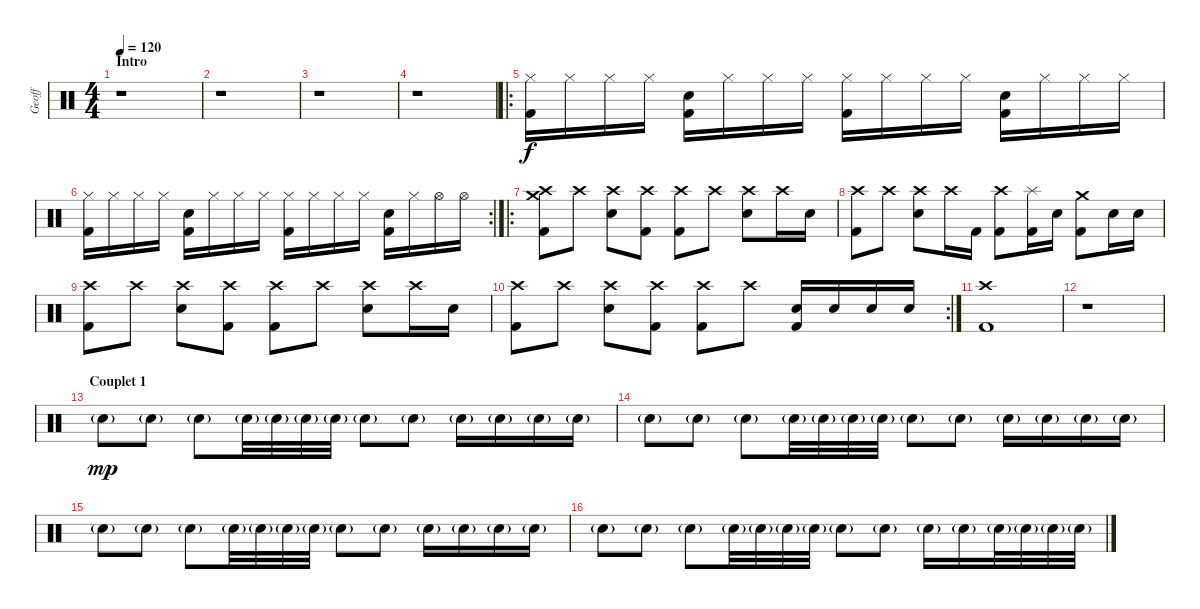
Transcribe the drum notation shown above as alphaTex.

\track ("Geoff" "Geoff") {instrument percussion}
\staff {score}
\articulation defaults
\ts (4 4)
\section ("" "Intro")
\tempo 120
\clef neutral
\ks c
r.1{dy f} |
r.1 |
r.1 |
r.1 |
\ro
("Hi-Hat (closed)" "Kick (hit) 2").16 "Hi-Hat (closed)".16 "Hi-Hat (closed)".16 "Hi-Hat (closed)".16 ("Electric Snare (hit)" "Kick (hit) 2").16 "Hi-Hat (closed)".16 "Hi-Hat (closed)".16 "Hi-Hat (closed)".16 ("Hi-Hat (closed)" "Kick (hit) 2").16 "Hi-Hat (closed)".16 "Hi-Hat (closed)".16 "Hi-Hat (closed)".16 ("Electric Snare (hit)" "Kick (hit) 2").16 "Hi-Hat (closed)".16 "Hi-Hat (closed)".16 "Hi-Hat (closed)".16 |
\rc 2
("Hi-Hat (closed)" "Kick (hit) 2").16 "Hi-Hat (closed)".16 "Hi-Hat (closed)".16 "Hi-Hat (closed)".16 ("Electric Snare (hit)" "Kick (hit) 2").16 "Hi-Hat (closed)".16 "Hi-Hat (closed)".16 "Hi-Hat (closed)".16 ("Hi-Hat (closed)" "Kick (hit) 2").16 "Hi-Hat (closed)".16 "Hi-Hat (closed)".16 "Hi-Hat (closed)".16 ("Electric Snare (hit)" "Kick (hit) 2").16 "Hi-Hat (closed)".16 "Hi-Hat (open)".16 "Hi-Hat (open)".16 |
\ro
("Crash high (hit)" "Crash medium (hit)" "Kick (hit) 2").8 "Crash high (hit)".8 ("Crash high (hit)" "Electric Snare (hit)").8 ("Crash high (hit)" "Kick (hit) 2").8 ("Crash high (hit)" "Kick (hit) 2").8 "Crash high (hit)".8 ("Crash high (hit)" "Electric Snare (hit)").8 "Crash high (hit)".16 "Electric Snare (hit)".16 |
("Crash high (hit)" "Kick (hit) 2").8 "Crash high (hit)".8 ("Crash high (hit)" "Electric Snare (hit)").8 "Crash high (hit)".16 "Kick (hit) 2".16 ("Crash high (hit)" "Kick (hit) 2").8 ("Splash (hit)" "Kick (hit) 2").16 "Electric Snare (hit)".16 ("Crash medium (hit)" "Kick (hit) 2").8 "Electric Snare (hit)".16 "Electric Snare (hit)".16 |
("Crash high (hit)" "Kick (hit) 2").8 "Crash high (hit)".8 ("Crash high (hit)" "Electric Snare (hit)").8 ("Crash high (hit)" "Kick (hit) 2").8 ("Crash high (hit)" "Kick (hit) 2").8 "Crash high (hit)".8 ("Crash high (hit)" "Electric Snare (hit)").8 "Crash high (hit)".16 "Electric Snare (hit)".16 |
\rc 2
("Crash high (hit)" "Kick (hit) 2").8 "Crash high (hit)".8 ("Crash high (hit)" "Electric Snare (hit)").8 ("Crash high (hit)" "Kick (hit) 2").8 ("Crash high (hit)" "Kick (hit) 2").8 "Crash high (hit)".8 ("Electric Snare (hit)" "Kick (hit) 2").16 "Electric Snare (hit)".16 "Electric Snare (hit)".16 "Electric Snare (hit)".16 |
("Crash high (hit)" "Kick (hit) 2").1 |
r.1 |
\section ("" "Couplet 1")
"Electric Snare (hit)"{g}.8{dy mp} "Electric Snare (hit)"{g}.8 "Electric Snare (hit)"{g}.8 "Electric Snare (hit)"{g}.32 "Electric Snare (hit)"{g}.32 "Electric Snare (hit)"{g}.32 "Electric Snare (hit)"{g}.32 "Electric Snare (hit)"{g}.8 "Electric Snare (hit)"{g}.8 "Electric Snare (hit)"{g}.16 "Electric Snare (hit)"{g}.16 "Electric Snare (hit)"{g}.16 "Electric Snare (hit)"{g}.16 |
"Electric Snare (hit)"{g}.8 "Electric Snare (hit)"{g}.8 "Electric Snare (hit)"{g}.8 "Electric Snare (hit)"{g}.32 "Electric Snare (hit)"{g}.32 "Electric Snare (hit)"{g}.32 "Electric Snare (hit)"{g}.32 "Electric Snare (hit)"{g}.8 "Electric Snare (hit)"{g}.8 "Electric Snare (hit)"{g}.16 "Electric Snare (hit)"{g}.16 "Electric Snare (hit)"{g}.16 "Electric Snare (hit)"{g}.16 |
"Electric Snare (hit)"{g}.8 "Electric Snare (hit)"{g}.8 "Electric Snare (hit)"{g}.8 "Electric Snare (hit)"{g}.32 "Electric Snare (hit)"{g}.32 "Electric Snare (hit)"{g}.32 "Electric Snare (hit)"{g}.32 "Electric Snare (hit)"{g}.8 "Electric Snare (hit)"{g}.8 "Electric Snare (hit)"{g}.16 "Electric Snare (hit)"{g}.16 "Electric Snare (hit)"{g}.16 "Electric Snare (hit)"{g}.16 |
"Electric Snare (hit)"{g}.8 "Electric Snare (hit)"{g}.8 "Electric Snare (hit)"{g}.8 "Electric Snare (hit)"{g}.32 "Electric Snare (hit)"{g}.32 "Electric Snare (hit)"{g}.32 "Electric Snare (hit)"{g}.32 "Electric Snare (hit)"{g}.8 "Electric Snare (hit)"{g}.8 "Electric Snare (hit)"{g}.16 "Electric Snare (hit)"{g}.16 "Electric Snare (hit)"{g}.32 "Electric Snare (hit)"{g}.32 "Electric Snare (hit)"{g}.32 "Electric Snare (hit)"{g}.32
